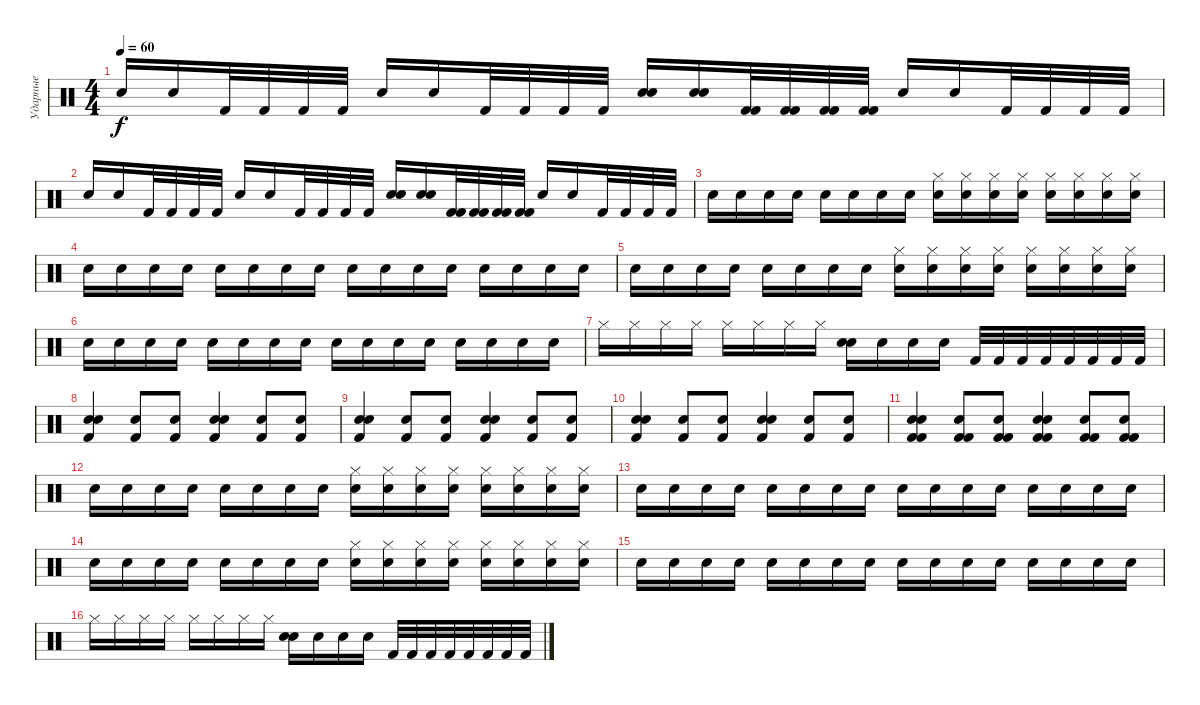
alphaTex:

\track ("Ударные" "Ударные") {instrument percussion}
\staff {score}
\articulation defaults
\ts (4 4)
\tempo 60
\clef neutral
\ks c "Electric Snare (hit)".16{dy f} "Electric Snare (hit)".16 "Kick (hit) 2".32 "Kick (hit) 2".32 "Kick (hit) 2".32 "Kick (hit) 2".32 "Electric Snare (hit)".16 "Electric Snare (hit)".16 "Kick (hit) 2".32 "Kick (hit) 2".32 "Kick (hit) 2".32 "Kick (hit) 2".32
("Electric Snare (hit)" "Electric Snare (hit)").16 ("Electric Snare (hit)" "Electric Snare (hit)").16 ("Kick (hit) 2" "Kick (hit) 2").32 ("Kick (hit) 2" "Kick (hit) 2").32 ("Kick (hit) 2" "Kick (hit) 2").32 ("Kick (hit) 2" "Kick (hit) 2").32 "Electric Snare (hit)".16 "Electric Snare (hit)".16 "Kick (hit) 2".32 "Kick (hit) 2".32 "Kick (hit) 2".32 "Kick (hit) 2".32 |
"Electric Snare (hit)".16 "Electric Snare (hit)".16 "Kick (hit) 2".32 "Kick (hit) 2".32 "Kick (hit) 2".32 "Kick (hit) 2".32 "Electric Snare (hit)".16 "Electric Snare (hit)".16 "Kick (hit) 2".32 "Kick (hit) 2".32 "Kick (hit) 2".32 "Kick (hit) 2".32 ("Electric Snare (hit)" "Electric Snare (hit)").16 ("Electric Snare (hit)" "Electric Snare (hit)").16 ("Kick (hit) 2" "Kick (hit) 2").32 ("Kick (hit) 2" "Kick (hit) 2").32 ("Kick (hit) 2" "Kick (hit) 2").32 ("Kick (hit) 2" "Kick (hit) 2").32 "Electric Snare (hit)".16 "Electric Snare (hit)".16 "Kick (hit) 2".32 "Kick (hit) 2".32 "Kick (hit) 2".32 "Kick (hit) 2".32 |
"Electric Snare (hit)".16 "Electric Snare (hit)".16 "Electric Snare (hit)".16 "Electric Snare (hit)".16 "Electric Snare (hit)".16 "Electric Snare (hit)".16 "Electric Snare (hit)".16 "Electric Snare (hit)".16 ("Electric Snare (hit)" "Hi-Hat (closed)").16 ("Electric Snare (hit)" "Hi-Hat (closed)").16 ("Electric Snare (hit)" "Hi-Hat (closed)").16 ("Electric Snare (hit)" "Hi-Hat (closed)").16 ("Electric Snare (hit)" "Hi-Hat (closed)").16 ("Electric Snare (hit)" "Hi-Hat (closed)").16 ("Electric Snare (hit)" "Hi-Hat (closed)").16 ("Electric Snare (hit)" "Hi-Hat (closed)").16 |
"Electric Snare (hit)".16 "Electric Snare (hit)".16 "Electric Snare (hit)".16 "Electric Snare (hit)".16 "Electric Snare (hit)".16 "Electric Snare (hit)".16 "Electric Snare (hit)".16 "Electric Snare (hit)".16 "Electric Snare (hit)".16 "Electric Snare (hit)".16 "Electric Snare (hit)".16 "Electric Snare (hit)".16 "Electric Snare (hit)".16 "Electric Snare (hit)".16 "Electric Snare (hit)".16 "Electric Snare (hit)".16 |
"Electric Snare (hit)".16 "Electric Snare (hit)".16 "Electric Snare (hit)".16 "Electric Snare (hit)".16 "Electric Snare (hit)".16 "Electric Snare (hit)".16 "Electric Snare (hit)".16 "Electric Snare (hit)".16 ("Electric Snare (hit)" "Hi-Hat (closed)").16 ("Electric Snare (hit)" "Hi-Hat (closed)").16 ("Electric Snare (hit)" "Hi-Hat (closed)").16 ("Electric Snare (hit)" "Hi-Hat (closed)").16 ("Electric Snare (hit)" "Hi-Hat (closed)").16 ("Electric Snare (hit)" "Hi-Hat (closed)").16 ("Electric Snare (hit)" "Hi-Hat (closed)").16 ("Electric Snare (hit)" "Hi-Hat (closed)").16 |
"Electric Snare (hit)".16 "Electric Snare (hit)".16 "Electric Snare (hit)".16 "Electric Snare (hit)".16 "Electric Snare (hit)".16 "Electric Snare (hit)".16 "Electric Snare (hit)".16 "Electric Snare (hit)".16 "Electric Snare (hit)".16 "Electric Snare (hit)".16 "Electric Snare (hit)".16 "Electric Snare (hit)".16 "Electric Snare (hit)".16 "Electric Snare (hit)".16 "Electric Snare (hit)".16 "Electric Snare (hit)".16 |
"Hi-Hat (closed)".16 "Hi-Hat (closed)".16 "Hi-Hat (closed)".16 "Hi-Hat (closed)".16 "Hi-Hat (closed)".16 "Hi-Hat (closed)".16 "Hi-Hat (closed)".16 "Hi-Hat (closed)".16 ("Electric Snare (hit)" "Electric Snare (hit)").16 "Electric Snare (hit)".16 "Electric Snare (hit)".16 "Electric Snare (hit)".16 "Kick (hit) 2".32 "Kick (hit) 2".32 "Kick (hit) 2".32 "Kick (hit) 2".32 "Kick (hit) 2".32 "Kick (hit) 2".32 "Kick (hit) 2".32 "Kick (hit) 2".32 |
("Kick (hit) 2" "Electric Snare (hit)" "Electric Snare (hit)").4 ("Kick (hit) 2" "Electric Snare (hit)").8 ("Kick (hit) 2" "Electric Snare (hit)").8 ("Kick (hit) 2" "Electric Snare (hit)" "Electric Snare (hit)").4 ("Kick (hit) 2" "Electric Snare (hit)").8 ("Kick (hit) 2" "Electric Snare (hit)").8 |
("Kick (hit) 2" "Electric Snare (hit)" "Electric Snare (hit)").4 ("Kick (hit) 2" "Electric Snare (hit)").8 ("Kick (hit) 2" "Electric Snare (hit)").8 ("Kick (hit) 2" "Electric Snare (hit)" "Electric Snare (hit)").4 ("Kick (hit) 2" "Electric Snare (hit)").8 ("Kick (hit) 2" "Electric Snare (hit)").8 |
("Kick (hit) 2" "Electric Snare (hit)" "Electric Snare (hit)").4 ("Kick (hit) 2" "Electric Snare (hit)").8 ("Kick (hit) 2" "Electric Snare (hit)").8 ("Kick (hit) 2" "Electric Snare (hit)" "Electric Snare (hit)").4 ("Kick (hit) 2" "Electric Snare (hit)").8 ("Kick (hit) 2" "Electric Snare (hit)").8 |
("Kick (hit) 2" "Kick (hit) 2" "Electric Snare (hit)" "Electric Snare (hit)").4 ("Kick (hit) 2" "Kick (hit) 2" "Electric Snare (hit)").8 ("Kick (hit) 2" "Kick (hit) 2" "Electric Snare (hit)").8 ("Kick (hit) 2" "Kick (hit) 2" "Electric Snare (hit)" "Electric Snare (hit)").4 ("Kick (hit) 2" "Kick (hit) 2" "Electric Snare (hit)").8 ("Kick (hit) 2" "Kick (hit) 2" "Electric Snare (hit)").8 |
"Electric Snare (hit)".16 "Electric Snare (hit)".16 "Electric Snare (hit)".16 "Electric Snare (hit)".16 "Electric Snare (hit)".16 "Electric Snare (hit)".16 "Electric Snare (hit)".16 "Electric Snare (hit)".16 ("Electric Snare (hit)" "Hi-Hat (closed)").16 ("Electric Snare (hit)" "Hi-Hat (closed)").16 ("Electric Snare (hit)" "Hi-Hat (closed)").16 ("Electric Snare (hit)" "Hi-Hat (closed)").16 ("Electric Snare (hit)" "Hi-Hat (closed)").16 ("Electric Snare (hit)" "Hi-Hat (closed)").16 ("Electric Snare (hit)" "Hi-Hat (closed)").16 ("Electric Snare (hit)" "Hi-Hat (closed)").16 |
"Electric Snare (hit)".16 "Electric Snare (hit)".16 "Electric Snare (hit)".16 "Electric Snare (hit)".16 "Electric Snare (hit)".16 "Electric Snare (hit)".16 "Electric Snare (hit)".16 "Electric Snare (hit)".16 "Electric Snare (hit)".16 "Electric Snare (hit)".16 "Electric Snare (hit)".16 "Electric Snare (hit)".16 "Electric Snare (hit)".16 "Electric Snare (hit)".16 "Electric Snare (hit)".16 "Electric Snare (hit)".16 |
"Electric Snare (hit)".16 "Electric Snare (hit)".16 "Electric Snare (hit)".16 "Electric Snare (hit)".16 "Electric Snare (hit)".16 "Electric Snare (hit)".16 "Electric Snare (hit)".16 "Electric Snare (hit)".16 ("Electric Snare (hit)" "Hi-Hat (closed)").16 ("Electric Snare (hit)" "Hi-Hat (closed)").16 ("Electric Snare (hit)" "Hi-Hat (closed)").16 ("Electric Snare (hit)" "Hi-Hat (closed)").16 ("Electric Snare (hit)" "Hi-Hat (closed)").16 ("Electric Snare (hit)" "Hi-Hat (closed)").16 ("Electric Snare (hit)" "Hi-Hat (closed)").16 ("Electric Snare (hit)" "Hi-Hat (closed)").16 |
"Electric Snare (hit)".16 "Electric Snare (hit)".16 "Electric Snare (hit)".16 "Electric Snare (hit)".16 "Electric Snare (hit)".16 "Electric Snare (hit)".16 "Electric Snare (hit)".16 "Electric Snare (hit)".16 "Electric Snare (hit)".16 "Electric Snare (hit)".16 "Electric Snare (hit)".16 "Electric Snare (hit)".16 "Electric Snare (hit)".16 "Electric Snare (hit)".16 "Electric Snare (hit)".16 "Electric Snare (hit)".16 |
"Hi-Hat (closed)".16 "Hi-Hat (closed)".16 "Hi-Hat (closed)".16 "Hi-Hat (closed)".16 "Hi-Hat (closed)".16 "Hi-Hat (closed)".16 "Hi-Hat (closed)".16 "Hi-Hat (closed)".16 ("Electric Snare (hit)" "Electric Snare (hit)").16 "Electric Snare (hit)".16 "Electric Snare (hit)".16 "Electric Snare (hit)".16 "Kick (hit) 2".32 "Kick (hit) 2".32 "Kick (hit) 2".32 "Kick (hit) 2".32 "Kick (hit) 2".32 "Kick (hit) 2".32 "Kick (hit) 2".32 "Kick (hit) 2".32
